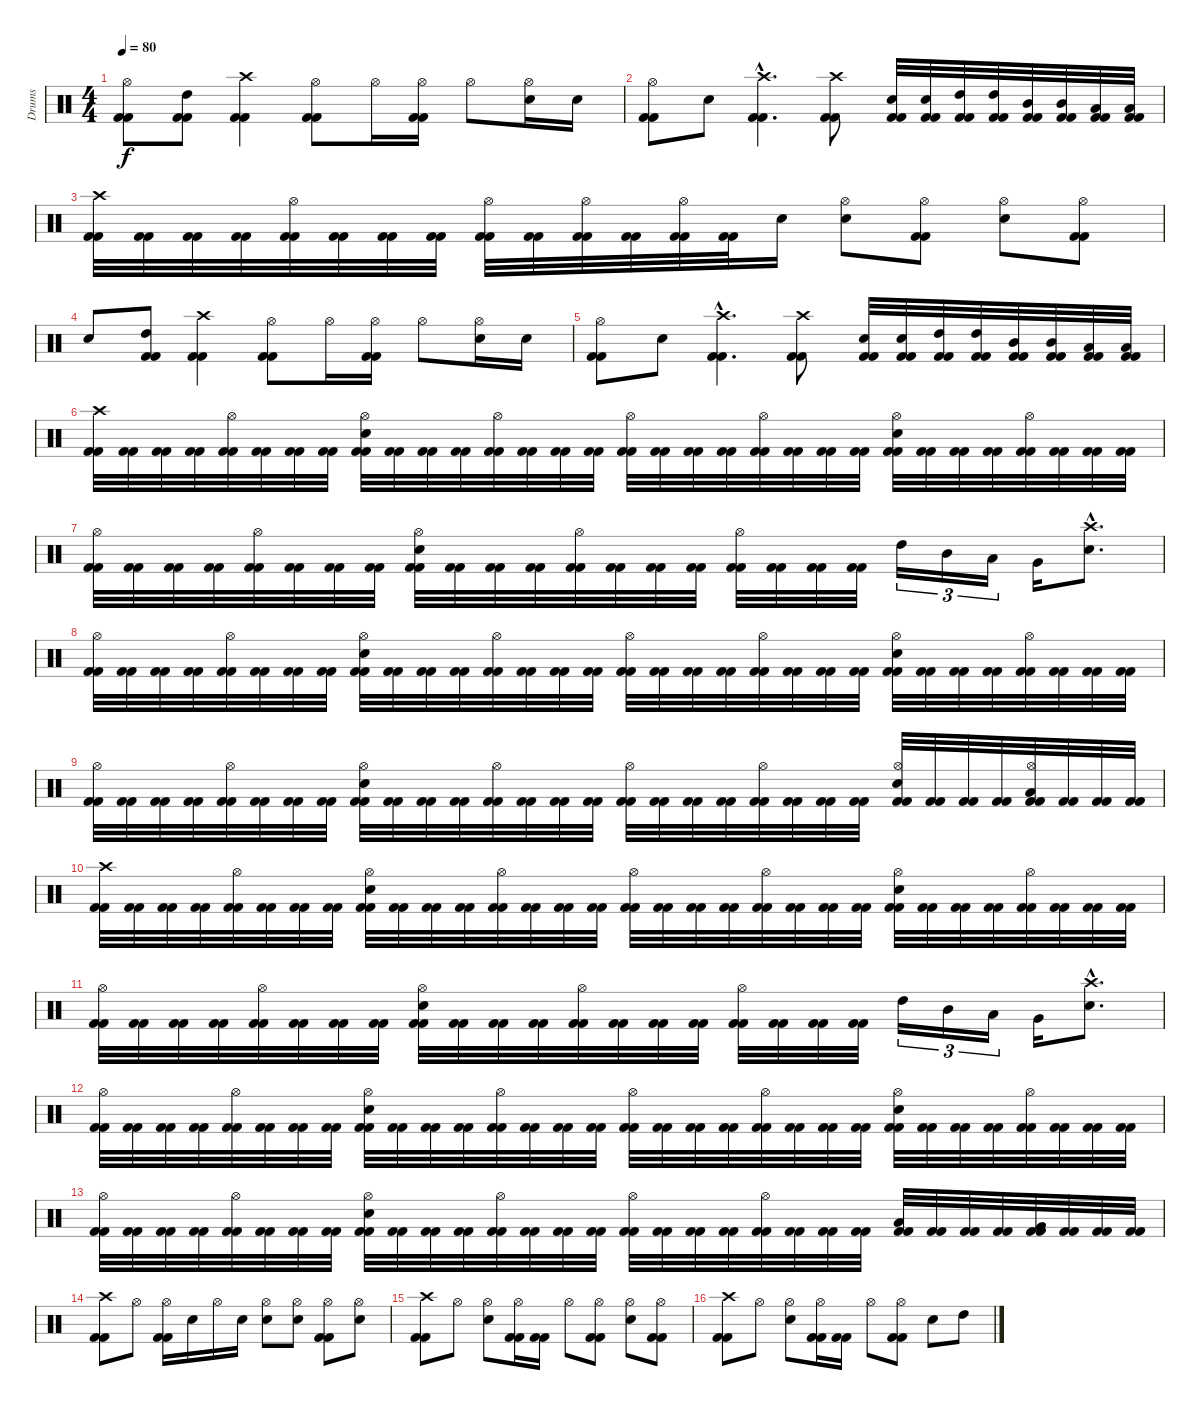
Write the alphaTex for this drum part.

\track ("Drums" "Drums") {instrument percussion}
\staff {score}
\articulation defaults
\ts (4 4)
\tempo 80
\clef neutral
\ks c
("Kick (hit) 2" "Kick (hit) 2" "Hi-Hat (open)").8{dy f} ("Kick (hit) 2" "Kick (hit) 2" "High Tom (hit)").8 ("Kick (hit) 2" "Kick (hit) 2" "Crash high (hit)").4 ("Kick (hit) 2" "Kick (hit) 2" "Hi-Hat (open)").8 "Hi-Hat (open)".16 ("Kick (hit) 2" "Kick (hit) 2" "Hi-Hat (open)").16 "Hi-Hat (open)".8 ("Snare (hit) 2" "Hi-Hat (open)").16 "Snare (hit) 2".16 |
("Kick (hit) 2" "Kick (hit) 2" "Hi-Hat (open)").8 "Snare (hit) 2".8 ("Kick (hit) 2"{hac} "Kick (hit) 2"{hac} "Crash high (hit)"{hac}).4{d} ("Kick (hit) 2" "Kick (hit) 2" "Crash high (hit)").8 ("Kick (hit) 2" "Kick (hit) 2" "Snare (hit) 2").32 ("Kick (hit) 2" "Kick (hit) 2" "Snare (hit) 2").32 ("Kick (hit) 2" "Kick (hit) 2" "High Tom (hit)").32 ("Kick (hit) 2" "Kick (hit) 2" "High Tom (hit)").32 ("Kick (hit) 2" "Kick (hit) 2" "Mid Tom (hit)").32 ("Kick (hit) 2" "Kick (hit) 2" "Mid Tom (hit)").32 ("Kick (hit) 2" "Kick (hit) 2" "Low Tom (hit)").32 ("Kick (hit) 2" "Kick (hit) 2" "Low Tom (hit)").32 |
("Kick (hit) 2" "Kick (hit) 2" "Crash high (hit)").32 ("Kick (hit) 2" "Kick (hit) 2").32 ("Kick (hit) 2" "Kick (hit) 2").32 ("Kick (hit) 2" "Kick (hit) 2").32 ("Kick (hit) 2" "Kick (hit) 2" "Hi-Hat (open)").32 ("Kick (hit) 2" "Kick (hit) 2").32 ("Kick (hit) 2" "Kick (hit) 2").32 ("Kick (hit) 2" "Kick (hit) 2").32 ("Kick (hit) 2" "Kick (hit) 2" "Hi-Hat (open)").32 ("Kick (hit) 2" "Kick (hit) 2").32 ("Kick (hit) 2" "Kick (hit) 2" "Hi-Hat (open)").32 ("Kick (hit) 2" "Kick (hit) 2").32 ("Kick (hit) 2" "Kick (hit) 2" "Hi-Hat (open)").32 ("Kick (hit) 2" "Kick (hit) 2").32 "Snare (hit) 2".16 ("Snare (hit) 2" "Hi-Hat (open)").8 ("Kick (hit) 2" "Kick (hit) 2" "Hi-Hat (open)").8 ("Snare (hit) 2" "Hi-Hat (open)").8 ("Kick (hit) 2" "Kick (hit) 2" "Hi-Hat (open)").8 |
"Snare (hit) 2".8 ("Kick (hit) 2" "Kick (hit) 2" "High Tom (hit)").8 ("Kick (hit) 2" "Kick (hit) 2" "Crash high (hit)").4 ("Kick (hit) 2" "Kick (hit) 2" "Hi-Hat (open)").8 "Hi-Hat (open)".16 ("Kick (hit) 2" "Kick (hit) 2" "Hi-Hat (open)").16 "Hi-Hat (open)".8 ("Snare (hit) 2" "Hi-Hat (open)").16 "Snare (hit) 2".16 |
("Kick (hit) 2" "Kick (hit) 2" "Hi-Hat (open)").8 "Snare (hit) 2".8 ("Kick (hit) 2"{hac} "Kick (hit) 2"{hac} "Crash high (hit)"{hac}).4{d} ("Kick (hit) 2" "Kick (hit) 2" "Crash high (hit)").8 ("Kick (hit) 2" "Kick (hit) 2" "Snare (hit) 2").32 ("Kick (hit) 2" "Kick (hit) 2" "Snare (hit) 2").32 ("Kick (hit) 2" "Kick (hit) 2" "High Tom (hit)").32 ("Kick (hit) 2" "Kick (hit) 2" "High Tom (hit)").32 ("Kick (hit) 2" "Kick (hit) 2" "Mid Tom (hit)").32 ("Kick (hit) 2" "Kick (hit) 2" "Mid Tom (hit)").32 ("Kick (hit) 2" "Kick (hit) 2" "Low Tom (hit)").32 ("Kick (hit) 2" "Kick (hit) 2" "Low Tom (hit)").32 |
("Kick (hit) 2" "Kick (hit) 2" "Crash high (hit)").32 ("Kick (hit) 2" "Kick (hit) 2").32 ("Kick (hit) 2" "Kick (hit) 2").32 ("Kick (hit) 2" "Kick (hit) 2").32 ("Kick (hit) 2" "Kick (hit) 2" "Hi-Hat (open)").32 ("Kick (hit) 2" "Kick (hit) 2").32 ("Kick (hit) 2" "Kick (hit) 2").32 ("Kick (hit) 2" "Kick (hit) 2").32 ("Kick (hit) 2" "Kick (hit) 2" "Snare (hit) 2" "Hi-Hat (open)").32 ("Kick (hit) 2" "Kick (hit) 2").32 ("Kick (hit) 2" "Kick (hit) 2").32 ("Kick (hit) 2" "Kick (hit) 2").32 ("Kick (hit) 2" "Kick (hit) 2" "Hi-Hat (open)").32 ("Kick (hit) 2" "Kick (hit) 2").32 ("Kick (hit) 2" "Kick (hit) 2").32 ("Kick (hit) 2" "Kick (hit) 2").32 ("Kick (hit) 2" "Kick (hit) 2" "Hi-Hat (open)").32 ("Kick (hit) 2" "Kick (hit) 2").32 ("Kick (hit) 2" "Kick (hit) 2").32 ("Kick (hit) 2" "Kick (hit) 2").32 ("Kick (hit) 2" "Kick (hit) 2" "Hi-Hat (open)").32 ("Kick (hit) 2" "Kick (hit) 2").32 ("Kick (hit) 2" "Kick (hit) 2").32 ("Kick (hit) 2" "Kick (hit) 2").32 ("Kick (hit) 2" "Kick (hit) 2" "Snare (hit) 2" "Hi-Hat (open)").32 ("Kick (hit) 2" "Kick (hit) 2").32 ("Kick (hit) 2" "Kick (hit) 2").32 ("Kick (hit) 2" "Kick (hit) 2").32 ("Kick (hit) 2" "Kick (hit) 2" "Hi-Hat (open)").32 ("Kick (hit) 2" "Kick (hit) 2").32 ("Kick (hit) 2" "Kick (hit) 2").32 ("Kick (hit) 2" "Kick (hit) 2").32 |
("Kick (hit) 2" "Kick (hit) 2" "Hi-Hat (open)").32 ("Kick (hit) 2" "Kick (hit) 2").32 ("Kick (hit) 2" "Kick (hit) 2").32 ("Kick (hit) 2" "Kick (hit) 2").32 ("Kick (hit) 2" "Kick (hit) 2" "Hi-Hat (open)").32 ("Kick (hit) 2" "Kick (hit) 2").32 ("Kick (hit) 2" "Kick (hit) 2").32 ("Kick (hit) 2" "Kick (hit) 2").32 ("Kick (hit) 2" "Kick (hit) 2" "Snare (hit) 2" "Hi-Hat (open)").32 ("Kick (hit) 2" "Kick (hit) 2").32 ("Kick (hit) 2" "Kick (hit) 2").32 ("Kick (hit) 2" "Kick (hit) 2").32 ("Kick (hit) 2" "Kick (hit) 2" "Hi-Hat (open)").32 ("Kick (hit) 2" "Kick (hit) 2").32 ("Kick (hit) 2" "Kick (hit) 2").32 ("Kick (hit) 2" "Kick (hit) 2").32 ("Kick (hit) 2" "Kick (hit) 2" "Hi-Hat (open)").32 ("Kick (hit) 2" "Kick (hit) 2").32 ("Kick (hit) 2" "Kick (hit) 2").32 ("Kick (hit) 2" "Kick (hit) 2").32 "High Tom (hit)".16{tu (3 2)} "Mid Tom (hit)".16{tu (3 2)} "Low Tom (hit)".16{tu (3 2)} "Very Low Tom (hit)".16 ("Crash high (hit)"{hac} "Snare (hit) 2"{hac}).8{d} |
("Kick (hit) 2" "Kick (hit) 2" "Hi-Hat (open)").32 ("Kick (hit) 2" "Kick (hit) 2").32 ("Kick (hit) 2" "Kick (hit) 2").32 ("Kick (hit) 2" "Kick (hit) 2").32 ("Kick (hit) 2" "Kick (hit) 2" "Hi-Hat (open)").32 ("Kick (hit) 2" "Kick (hit) 2").32 ("Kick (hit) 2" "Kick (hit) 2").32 ("Kick (hit) 2" "Kick (hit) 2").32 ("Kick (hit) 2" "Kick (hit) 2" "Snare (hit) 2" "Hi-Hat (open)").32 ("Kick (hit) 2" "Kick (hit) 2").32 ("Kick (hit) 2" "Kick (hit) 2").32 ("Kick (hit) 2" "Kick (hit) 2").32 ("Kick (hit) 2" "Kick (hit) 2" "Hi-Hat (open)").32 ("Kick (hit) 2" "Kick (hit) 2").32 ("Kick (hit) 2" "Kick (hit) 2").32 ("Kick (hit) 2" "Kick (hit) 2").32 ("Kick (hit) 2" "Kick (hit) 2" "Hi-Hat (open)").32 ("Kick (hit) 2" "Kick (hit) 2").32 ("Kick (hit) 2" "Kick (hit) 2").32 ("Kick (hit) 2" "Kick (hit) 2").32 ("Kick (hit) 2" "Kick (hit) 2" "Hi-Hat (open)").32 ("Kick (hit) 2" "Kick (hit) 2").32 ("Kick (hit) 2" "Kick (hit) 2").32 ("Kick (hit) 2" "Kick (hit) 2").32 ("Kick (hit) 2" "Kick (hit) 2" "Snare (hit) 2" "Hi-Hat (open)").32 ("Kick (hit) 2" "Kick (hit) 2").32 ("Kick (hit) 2" "Kick (hit) 2").32 ("Kick (hit) 2" "Kick (hit) 2").32 ("Kick (hit) 2" "Kick (hit) 2" "Hi-Hat (open)").32 ("Kick (hit) 2" "Kick (hit) 2").32 ("Kick (hit) 2" "Kick (hit) 2").32 ("Kick (hit) 2" "Kick (hit) 2").32 |
("Kick (hit) 2" "Kick (hit) 2" "Hi-Hat (open)").32 ("Kick (hit) 2" "Kick (hit) 2").32 ("Kick (hit) 2" "Kick (hit) 2").32 ("Kick (hit) 2" "Kick (hit) 2").32 ("Kick (hit) 2" "Kick (hit) 2" "Hi-Hat (open)").32 ("Kick (hit) 2" "Kick (hit) 2").32 ("Kick (hit) 2" "Kick (hit) 2").32 ("Kick (hit) 2" "Kick (hit) 2").32 ("Kick (hit) 2" "Kick (hit) 2" "Snare (hit) 2" "Hi-Hat (open)").32 ("Kick (hit) 2" "Kick (hit) 2").32 ("Kick (hit) 2" "Kick (hit) 2").32 ("Kick (hit) 2" "Kick (hit) 2").32 ("Kick (hit) 2" "Kick (hit) 2" "Hi-Hat (open)").32 ("Kick (hit) 2" "Kick (hit) 2").32 ("Kick (hit) 2" "Kick (hit) 2").32 ("Kick (hit) 2" "Kick (hit) 2").32 ("Kick (hit) 2" "Kick (hit) 2" "Hi-Hat (open)").32 ("Kick (hit) 2" "Kick (hit) 2").32 ("Kick (hit) 2" "Kick (hit) 2").32 ("Kick (hit) 2" "Kick (hit) 2").32 ("Kick (hit) 2" "Kick (hit) 2" "Hi-Hat (open)").32 ("Kick (hit) 2" "Kick (hit) 2").32 ("Kick (hit) 2" "Kick (hit) 2").32 ("Kick (hit) 2" "Kick (hit) 2").32 ("Kick (hit) 2" "Kick (hit) 2" "Snare (hit) 2" "Hi-Hat (open)").32 ("Kick (hit) 2" "Kick (hit) 2").32 ("Kick (hit) 2" "Kick (hit) 2").32 ("Kick (hit) 2" "Kick (hit) 2").32 ("Kick (hit) 2" "Kick (hit) 2" "Low Tom (hit)" "Hi-Hat (open)").32 ("Kick (hit) 2" "Kick (hit) 2").32 ("Kick (hit) 2" "Kick (hit) 2").32 ("Kick (hit) 2" "Kick (hit) 2").32 |
("Kick (hit) 2" "Kick (hit) 2" "Crash high (hit)").32 ("Kick (hit) 2" "Kick (hit) 2").32 ("Kick (hit) 2" "Kick (hit) 2").32 ("Kick (hit) 2" "Kick (hit) 2").32 ("Kick (hit) 2" "Kick (hit) 2" "Hi-Hat (open)").32 ("Kick (hit) 2" "Kick (hit) 2").32 ("Kick (hit) 2" "Kick (hit) 2").32 ("Kick (hit) 2" "Kick (hit) 2").32 ("Kick (hit) 2" "Kick (hit) 2" "Snare (hit) 2" "Hi-Hat (open)").32 ("Kick (hit) 2" "Kick (hit) 2").32 ("Kick (hit) 2" "Kick (hit) 2").32 ("Kick (hit) 2" "Kick (hit) 2").32 ("Kick (hit) 2" "Kick (hit) 2" "Hi-Hat (open)").32 ("Kick (hit) 2" "Kick (hit) 2").32 ("Kick (hit) 2" "Kick (hit) 2").32 ("Kick (hit) 2" "Kick (hit) 2").32 ("Kick (hit) 2" "Kick (hit) 2" "Hi-Hat (open)").32 ("Kick (hit) 2" "Kick (hit) 2").32 ("Kick (hit) 2" "Kick (hit) 2").32 ("Kick (hit) 2" "Kick (hit) 2").32 ("Kick (hit) 2" "Kick (hit) 2" "Hi-Hat (open)").32 ("Kick (hit) 2" "Kick (hit) 2").32 ("Kick (hit) 2" "Kick (hit) 2").32 ("Kick (hit) 2" "Kick (hit) 2").32 ("Kick (hit) 2" "Kick (hit) 2" "Snare (hit) 2" "Hi-Hat (open)").32 ("Kick (hit) 2" "Kick (hit) 2").32 ("Kick (hit) 2" "Kick (hit) 2").32 ("Kick (hit) 2" "Kick (hit) 2").32 ("Kick (hit) 2" "Kick (hit) 2" "Hi-Hat (open)").32 ("Kick (hit) 2" "Kick (hit) 2").32 ("Kick (hit) 2" "Kick (hit) 2").32 ("Kick (hit) 2" "Kick (hit) 2").32 |
("Kick (hit) 2" "Kick (hit) 2" "Hi-Hat (open)").32 ("Kick (hit) 2" "Kick (hit) 2").32 ("Kick (hit) 2" "Kick (hit) 2").32 ("Kick (hit) 2" "Kick (hit) 2").32 ("Kick (hit) 2" "Kick (hit) 2" "Hi-Hat (open)").32 ("Kick (hit) 2" "Kick (hit) 2").32 ("Kick (hit) 2" "Kick (hit) 2").32 ("Kick (hit) 2" "Kick (hit) 2").32 ("Kick (hit) 2" "Kick (hit) 2" "Snare (hit) 2" "Hi-Hat (open)").32 ("Kick (hit) 2" "Kick (hit) 2").32 ("Kick (hit) 2" "Kick (hit) 2").32 ("Kick (hit) 2" "Kick (hit) 2").32 ("Kick (hit) 2" "Kick (hit) 2" "Hi-Hat (open)").32 ("Kick (hit) 2" "Kick (hit) 2").32 ("Kick (hit) 2" "Kick (hit) 2").32 ("Kick (hit) 2" "Kick (hit) 2").32 ("Kick (hit) 2" "Kick (hit) 2" "Hi-Hat (open)").32 ("Kick (hit) 2" "Kick (hit) 2").32 ("Kick (hit) 2" "Kick (hit) 2").32 ("Kick (hit) 2" "Kick (hit) 2").32 "High Tom (hit)".16{tu (3 2)} "Mid Tom (hit)".16{tu (3 2)} "Low Tom (hit)".16{tu (3 2)} "Very Low Tom (hit)".16 ("Crash high (hit)"{hac} "Snare (hit) 2"{hac}).8{d} |
("Kick (hit) 2" "Kick (hit) 2" "Hi-Hat (open)").32 ("Kick (hit) 2" "Kick (hit) 2").32 ("Kick (hit) 2" "Kick (hit) 2").32 ("Kick (hit) 2" "Kick (hit) 2").32 ("Kick (hit) 2" "Kick (hit) 2" "Hi-Hat (open)").32 ("Kick (hit) 2" "Kick (hit) 2").32 ("Kick (hit) 2" "Kick (hit) 2").32 ("Kick (hit) 2" "Kick (hit) 2").32 ("Kick (hit) 2" "Kick (hit) 2" "Snare (hit) 2" "Hi-Hat (open)").32 ("Kick (hit) 2" "Kick (hit) 2").32 ("Kick (hit) 2" "Kick (hit) 2").32 ("Kick (hit) 2" "Kick (hit) 2").32 ("Kick (hit) 2" "Kick (hit) 2" "Hi-Hat (open)").32 ("Kick (hit) 2" "Kick (hit) 2").32 ("Kick (hit) 2" "Kick (hit) 2").32 ("Kick (hit) 2" "Kick (hit) 2").32 ("Kick (hit) 2" "Kick (hit) 2" "Hi-Hat (open)").32 ("Kick (hit) 2" "Kick (hit) 2").32 ("Kick (hit) 2" "Kick (hit) 2").32 ("Kick (hit) 2" "Kick (hit) 2").32 ("Kick (hit) 2" "Kick (hit) 2" "Hi-Hat (open)").32 ("Kick (hit) 2" "Kick (hit) 2").32 ("Kick (hit) 2" "Kick (hit) 2").32 ("Kick (hit) 2" "Kick (hit) 2").32 ("Kick (hit) 2" "Kick (hit) 2" "Snare (hit) 2" "Hi-Hat (open)").32 ("Kick (hit) 2" "Kick (hit) 2").32 ("Kick (hit) 2" "Kick (hit) 2").32 ("Kick (hit) 2" "Kick (hit) 2").32 ("Kick (hit) 2" "Kick (hit) 2" "Hi-Hat (open)").32 ("Kick (hit) 2" "Kick (hit) 2").32 ("Kick (hit) 2" "Kick (hit) 2").32 ("Kick (hit) 2" "Kick (hit) 2").32 |
("Kick (hit) 2" "Kick (hit) 2" "Hi-Hat (open)").32 ("Kick (hit) 2" "Kick (hit) 2").32 ("Kick (hit) 2" "Kick (hit) 2").32 ("Kick (hit) 2" "Kick (hit) 2").32 ("Kick (hit) 2" "Kick (hit) 2" "Hi-Hat (open)").32 ("Kick (hit) 2" "Kick (hit) 2").32 ("Kick (hit) 2" "Kick (hit) 2").32 ("Kick (hit) 2" "Kick (hit) 2").32 ("Kick (hit) 2" "Kick (hit) 2" "Snare (hit) 2" "Hi-Hat (open)").32 ("Kick (hit) 2" "Kick (hit) 2").32 ("Kick (hit) 2" "Kick (hit) 2").32 ("Kick (hit) 2" "Kick (hit) 2").32 ("Kick (hit) 2" "Kick (hit) 2" "Hi-Hat (open)").32 ("Kick (hit) 2" "Kick (hit) 2").32 ("Kick (hit) 2" "Kick (hit) 2").32 ("Kick (hit) 2" "Kick (hit) 2").32 ("Kick (hit) 2" "Kick (hit) 2" "Hi-Hat (open)").32 ("Kick (hit) 2" "Kick (hit) 2").32 ("Kick (hit) 2" "Kick (hit) 2").32 ("Kick (hit) 2" "Kick (hit) 2").32 ("Kick (hit) 2" "Kick (hit) 2" "Hi-Hat (open)").32 ("Kick (hit) 2" "Kick (hit) 2").32 ("Kick (hit) 2" "Kick (hit) 2").32 ("Kick (hit) 2" "Kick (hit) 2").32 ("Kick (hit) 2" "Kick (hit) 2" "Low Tom (hit)").32 ("Kick (hit) 2" "Kick (hit) 2").32 ("Kick (hit) 2" "Kick (hit) 2").32 ("Kick (hit) 2" "Kick (hit) 2").32 ("Kick (hit) 2" "Kick (hit) 2" "Very Low Tom (hit)").32 ("Kick (hit) 2" "Kick (hit) 2").32 ("Kick (hit) 2" "Kick (hit) 2").32 ("Kick (hit) 2" "Kick (hit) 2").32 |
("Kick (hit) 2" "Kick (hit) 2" "Crash high (hit)").8 "Hi-Hat (open)".8 ("Kick (hit) 2" "Kick (hit) 2" "Hi-Hat (open)").16 "Snare (hit) 2".16 "Hi-Hat (open)".16 "Snare (hit) 2".16 ("Snare (hit) 2" "Hi-Hat (open)").8 ("Snare (hit) 2" "Hi-Hat (open)").8 ("Kick (hit) 2" "Kick (hit) 2" "Hi-Hat (open)").8 ("Snare (hit) 2" "Hi-Hat (open)").8 |
("Kick (hit) 2" "Kick (hit) 2" "Crash high (hit)").8 "Hi-Hat (open)".8 ("Snare (hit) 2" "Hi-Hat (open)").8 ("Kick (hit) 2" "Kick (hit) 2" "Hi-Hat (open)").16 ("Kick (hit) 2" "Kick (hit) 2").16 "Hi-Hat (open)".8 ("Kick (hit) 2" "Kick (hit) 2" "Hi-Hat (open)").8 ("Snare (hit) 2" "Hi-Hat (open)").8 ("Kick (hit) 2" "Kick (hit) 2" "Hi-Hat (open)").8 |
("Kick (hit) 2" "Kick (hit) 2" "Crash high (hit)").8 "Hi-Hat (open)".8 ("Snare (hit) 2" "Hi-Hat (open)").8 ("Kick (hit) 2" "Kick (hit) 2" "Hi-Hat (open)").16 ("Kick (hit) 2" "Kick (hit) 2").16 "Hi-Hat (open)".8 ("Kick (hit) 2" "Kick (hit) 2" "Hi-Hat (open)").8 "Snare (hit) 2".8 "High Tom (hit)".8
